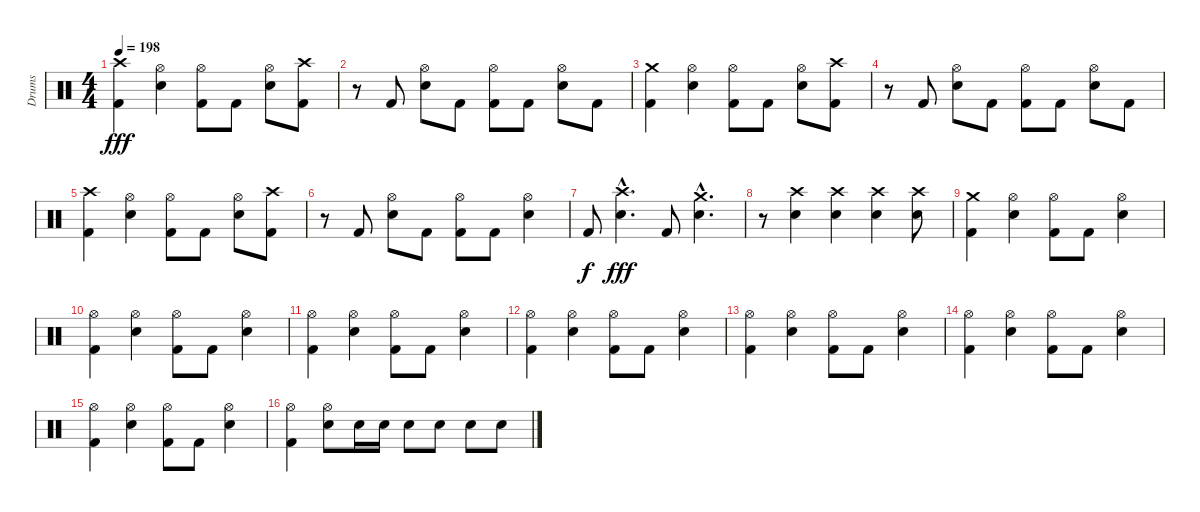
\track ("Drums" "Drums") {instrument percussion}
\staff {score}
\articulation defaults
\ts (4 4)
\tempo 198
\clef neutral
\ks c
("Crash high (hit)" "Kick (hit) 2").4{dy fff} ("Hi-Hat (open)" "Electric Snare (hit)").4 ("Hi-Hat (open)" "Kick (hit) 2").8 "Kick (hit) 2".8 ("Hi-Hat (open)" "Electric Snare (hit)").8 ("Crash high (hit)" "Kick (hit) 2").8 |
r.8 "Kick (hit) 2".8 ("Hi-Hat (open)" "Electric Snare (hit)").8 "Kick (hit) 2".8 ("Hi-Hat (open)" "Kick (hit) 2").8 "Kick (hit) 2".8 ("Hi-Hat (open)" "Electric Snare (hit)").8 "Kick (hit) 2".8 |
("Crash medium (hit)" "Kick (hit) 2").4 ("Hi-Hat (open)" "Electric Snare (hit)").4 ("Hi-Hat (open)" "Kick (hit) 2").8 "Kick (hit) 2".8 ("Hi-Hat (open)" "Electric Snare (hit)").8 ("Crash high (hit)" "Kick (hit) 2").8 |
r.8 "Kick (hit) 2".8 ("Hi-Hat (open)" "Electric Snare (hit)").8 "Kick (hit) 2".8 ("Hi-Hat (open)" "Kick (hit) 2").8 "Kick (hit) 2".8 ("Hi-Hat (open)" "Electric Snare (hit)").8 "Kick (hit) 2".8 |
("Crash high (hit)" "Kick (hit) 2").4 ("Hi-Hat (open)" "Electric Snare (hit)").4 ("Hi-Hat (open)" "Kick (hit) 2").8 "Kick (hit) 2".8 ("Hi-Hat (open)" "Electric Snare (hit)").8 ("Crash high (hit)" "Kick (hit) 2").8 |
r.8 "Kick (hit) 2".8 ("Hi-Hat (open)" "Electric Snare (hit)").8 "Kick (hit) 2".8 ("Hi-Hat (open)" "Kick (hit) 2").8 "Kick (hit) 2".8 ("Hi-Hat (open)" "Electric Snare (hit)").4 |
"Kick (hit) 2".8{dy f} ("Crash high (hit)"{hac} "Electric Snare (hit)"{hac}).4{d dy fff} "Kick (hit) 2".8 ("Crash medium (hit)"{hac} "Electric Snare (hit)"{hac}).4{d} |
r.8 ("Crash high (hit)" "Electric Snare (hit)").4 ("Crash high (hit)" "Electric Snare (hit)").4 ("Crash high (hit)" "Electric Snare (hit)").4 ("Crash high (hit)" "Electric Snare (hit)").8 |
("Crash medium (hit)" "Kick (hit) 2").4 ("Hi-Hat (open)" "Electric Snare (hit)").4 ("Hi-Hat (open)" "Kick (hit) 2").8 "Kick (hit) 2".8 ("Hi-Hat (open)" "Electric Snare (hit)").4 |
("Hi-Hat (open)" "Kick (hit) 2").4 ("Hi-Hat (open)" "Electric Snare (hit)").4 ("Hi-Hat (open)" "Kick (hit) 2").8 "Kick (hit) 2".8 ("Hi-Hat (open)" "Electric Snare (hit)").4 |
("Hi-Hat (open)" "Kick (hit) 2").4 ("Hi-Hat (open)" "Electric Snare (hit)").4 ("Hi-Hat (open)" "Kick (hit) 2").8 "Kick (hit) 2".8 ("Hi-Hat (open)" "Electric Snare (hit)").4 |
("Hi-Hat (open)" "Kick (hit) 2").4 ("Hi-Hat (open)" "Electric Snare (hit)").4 ("Hi-Hat (open)" "Kick (hit) 2").8 "Kick (hit) 2".8 ("Hi-Hat (open)" "Electric Snare (hit)").4 |
("Hi-Hat (open)" "Kick (hit) 2").4 ("Hi-Hat (open)" "Electric Snare (hit)").4 ("Hi-Hat (open)" "Kick (hit) 2").8 "Kick (hit) 2".8 ("Hi-Hat (open)" "Electric Snare (hit)").4 |
("Hi-Hat (open)" "Kick (hit) 2").4 ("Hi-Hat (open)" "Electric Snare (hit)").4 ("Hi-Hat (open)" "Kick (hit) 2").8 "Kick (hit) 2".8 ("Hi-Hat (open)" "Electric Snare (hit)").4 |
("Hi-Hat (open)" "Kick (hit) 2").4 ("Hi-Hat (open)" "Electric Snare (hit)").4 ("Hi-Hat (open)" "Kick (hit) 2").8 "Kick (hit) 2".8 ("Hi-Hat (open)" "Electric Snare (hit)").4 |
("Hi-Hat (open)" "Kick (hit) 2").4 ("Hi-Hat (open)" "Electric Snare (hit)").8 "Electric Snare (hit)".16 "Electric Snare (hit)".16 "Electric Snare (hit)".8 "Electric Snare (hit)".8 "Electric Snare (hit)".8 "Electric Snare (hit)".8
